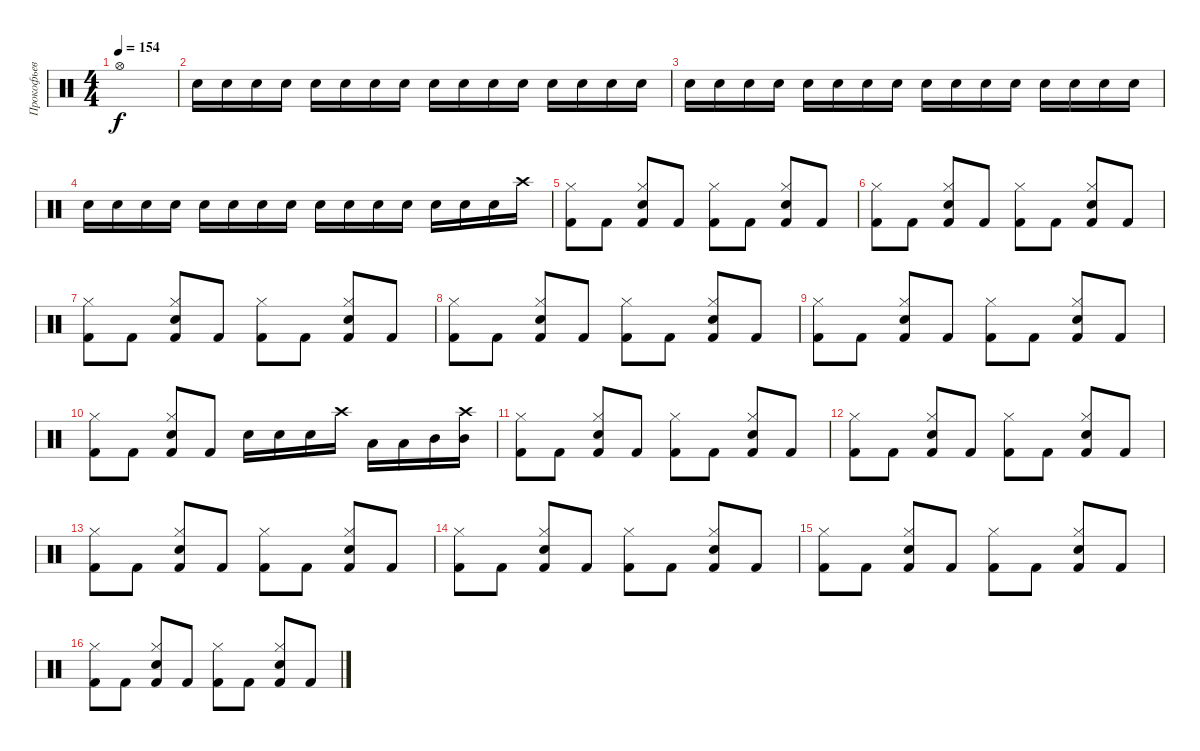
\track ("Прокофьев" "Прокофьев") {instrument percussion}
\staff {score}
\articulation defaults
\ts (4 4)
\tempo 154
\clef neutral
\ks c "Hi-Hat (open)".1{dy f}
|
"Snare (hit) 2".16 "Snare (hit) 2".16 "Snare (hit) 2".16 "Snare (hit) 2".16 "Snare (hit) 2".16 "Snare (hit) 2".16 "Snare (hit) 2".16 "Snare (hit) 2".16 "Snare (hit) 2".16 "Snare (hit) 2".16 "Snare (hit) 2".16 "Snare (hit) 2".16 "Snare (hit) 2".16 "Snare (hit) 2".16 "Snare (hit) 2".16 "Snare (hit) 2".16 |
"Snare (hit) 2".16 "Snare (hit) 2".16 "Snare (hit) 2".16 "Snare (hit) 2".16 "Snare (hit) 2".16 "Snare (hit) 2".16 "Snare (hit) 2".16 "Snare (hit) 2".16 "Snare (hit) 2".16 "Snare (hit) 2".16 "Snare (hit) 2".16 "Snare (hit) 2".16 "Snare (hit) 2".16 "Snare (hit) 2".16 "Snare (hit) 2".16 "Snare (hit) 2".16 |
"Snare (hit) 2".16 "Snare (hit) 2".16 "Snare (hit) 2".16 "Snare (hit) 2".16 "Snare (hit) 2".16 "Snare (hit) 2".16 "Snare (hit) 2".16 "Snare (hit) 2".16 "Snare (hit) 2".16 "Snare (hit) 2".16 "Snare (hit) 2".16 "Snare (hit) 2".16 "Snare (hit) 2".16 "Snare (hit) 2".16 "Snare (hit) 2".16 "Crash high (hit)".16 |
("Hi-Hat (closed)" "Kick (hit) 2").8 "Kick (hit) 2".8 ("Hi-Hat (closed)" "Snare (hit) 2" "Kick (hit) 2").8 "Kick (hit) 2".8 ("Hi-Hat (closed)" "Kick (hit) 2").8 "Kick (hit) 2".8 ("Hi-Hat (closed)" "Snare (hit) 2" "Kick (hit) 2").8 "Kick (hit) 2".8 |
("Hi-Hat (closed)" "Kick (hit) 2").8 "Kick (hit) 2".8 ("Hi-Hat (closed)" "Snare (hit) 2" "Kick (hit) 2").8 "Kick (hit) 2".8 ("Hi-Hat (closed)" "Kick (hit) 2").8 "Kick (hit) 2".8 ("Hi-Hat (closed)" "Snare (hit) 2" "Kick (hit) 2").8 "Kick (hit) 2".8 |
("Hi-Hat (closed)" "Kick (hit) 2").8 "Kick (hit) 2".8 ("Hi-Hat (closed)" "Snare (hit) 2" "Kick (hit) 2").8 "Kick (hit) 2".8 ("Hi-Hat (closed)" "Kick (hit) 2").8 "Kick (hit) 2".8 ("Hi-Hat (closed)" "Snare (hit) 2" "Kick (hit) 2").8 "Kick (hit) 2".8 |
("Hi-Hat (closed)" "Kick (hit) 2").8 "Kick (hit) 2".8 ("Hi-Hat (closed)" "Snare (hit) 2" "Kick (hit) 2").8 "Kick (hit) 2".8 ("Hi-Hat (closed)" "Kick (hit) 2").8 "Kick (hit) 2".8 ("Hi-Hat (closed)" "Snare (hit) 2" "Kick (hit) 2").8 "Kick (hit) 2".8 |
("Hi-Hat (closed)" "Kick (hit) 2").8 "Kick (hit) 2".8 ("Hi-Hat (closed)" "Snare (hit) 2" "Kick (hit) 2").8 "Kick (hit) 2".8 ("Hi-Hat (closed)" "Kick (hit) 2").8 "Kick (hit) 2".8 ("Hi-Hat (closed)" "Snare (hit) 2" "Kick (hit) 2").8 "Kick (hit) 2".8 |
("Hi-Hat (closed)" "Kick (hit) 2").8 "Kick (hit) 2".8 ("Hi-Hat (closed)" "Snare (hit) 2" "Kick (hit) 2").8 "Kick (hit) 2".8 "Snare (hit) 2".16 "Snare (hit) 2".16 "Snare (hit) 2".16 "Crash high (hit)".16 "Low Tom (hit)".16 "Low Tom (hit)".16 "Mid Tom (hit)".16 ("Crash high (hit)" "Mid Tom (hit)").16 |
("Hi-Hat (closed)" "Kick (hit) 2").8 "Kick (hit) 2".8 ("Hi-Hat (closed)" "Snare (hit) 2" "Kick (hit) 2").8 "Kick (hit) 2".8 ("Hi-Hat (closed)" "Kick (hit) 2").8 "Kick (hit) 2".8 ("Hi-Hat (closed)" "Snare (hit) 2" "Kick (hit) 2").8 "Kick (hit) 2".8 |
("Hi-Hat (closed)" "Kick (hit) 2").8 "Kick (hit) 2".8 ("Hi-Hat (closed)" "Snare (hit) 2" "Kick (hit) 2").8 "Kick (hit) 2".8 ("Hi-Hat (closed)" "Kick (hit) 2").8 "Kick (hit) 2".8 ("Hi-Hat (closed)" "Snare (hit) 2" "Kick (hit) 2").8 "Kick (hit) 2".8 |
("Hi-Hat (closed)" "Kick (hit) 2").8 "Kick (hit) 2".8 ("Hi-Hat (closed)" "Snare (hit) 2" "Kick (hit) 2").8 "Kick (hit) 2".8 ("Hi-Hat (closed)" "Kick (hit) 2").8 "Kick (hit) 2".8 ("Hi-Hat (closed)" "Snare (hit) 2" "Kick (hit) 2").8 "Kick (hit) 2".8 |
("Hi-Hat (closed)" "Kick (hit) 2").8 "Kick (hit) 2".8 ("Hi-Hat (closed)" "Snare (hit) 2" "Kick (hit) 2").8 "Kick (hit) 2".8 ("Hi-Hat (closed)" "Kick (hit) 2").8 "Kick (hit) 2".8 ("Hi-Hat (closed)" "Snare (hit) 2" "Kick (hit) 2").8 "Kick (hit) 2".8 |
("Hi-Hat (closed)" "Kick (hit) 2").8 "Kick (hit) 2".8 ("Hi-Hat (closed)" "Snare (hit) 2" "Kick (hit) 2").8 "Kick (hit) 2".8 ("Hi-Hat (closed)" "Kick (hit) 2").8 "Kick (hit) 2".8 ("Hi-Hat (closed)" "Snare (hit) 2" "Kick (hit) 2").8 "Kick (hit) 2".8 |
("Hi-Hat (closed)" "Kick (hit) 2").8 "Kick (hit) 2".8 ("Hi-Hat (closed)" "Snare (hit) 2" "Kick (hit) 2").8 "Kick (hit) 2".8 ("Hi-Hat (closed)" "Kick (hit) 2").8 "Kick (hit) 2".8 ("Hi-Hat (closed)" "Snare (hit) 2" "Kick (hit) 2").8 "Kick (hit) 2".8
